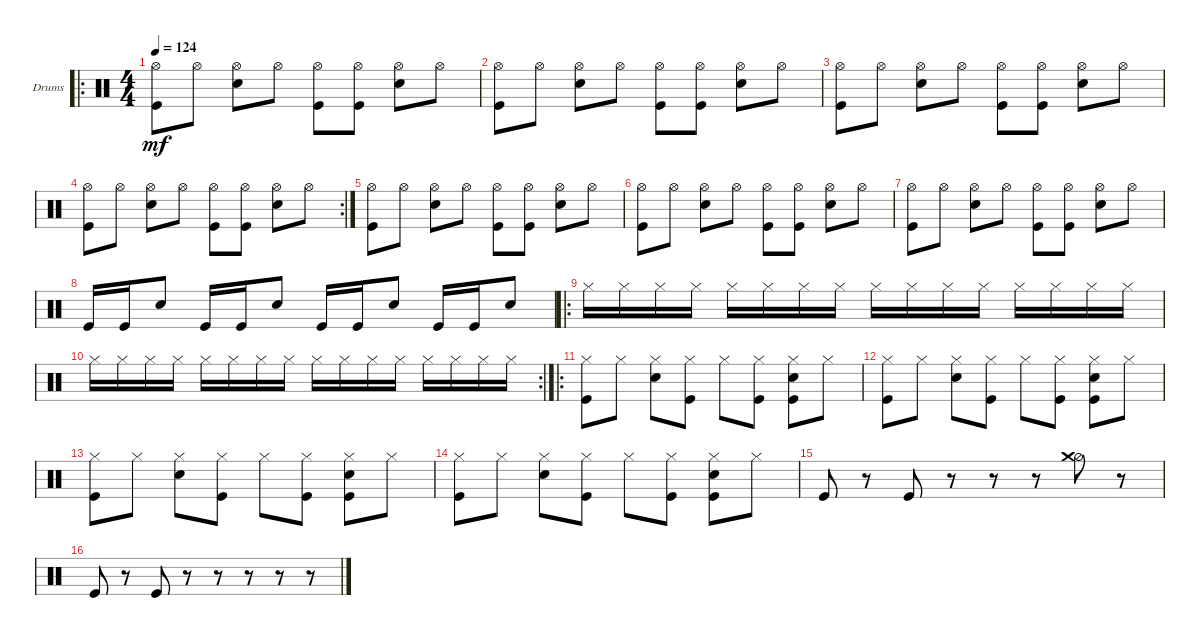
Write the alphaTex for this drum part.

\defaultSystemsLayout 4
\bracketExtendMode groupsimilarinstruments
\firstSystemTrackNameOrientation horizontal
\otherSystemsTrackNameOrientation horizontal
\track ("Drumkit" "Drums") {solo instrument percussion}
\staff {score}
\articulation defaults
\ro
\ts (4 4)
\tempo 124
\clef neutral
\ks c
("Kick (hit)" "Hi-Hat (open)").8{dy mf} "Hi-Hat (open)".8 ("Hi-Hat (open)" "Snare (hit) 2").8 "Hi-Hat (open)".8 ("Hi-Hat (open)" "Kick (hit)").8 ("Hi-Hat (open)" "Kick (hit)").8 ("Hi-Hat (open)" "Snare (hit) 2").8 "Hi-Hat (open)".8 |
("Kick (hit)" "Hi-Hat (open)").8 "Hi-Hat (open)".8 ("Hi-Hat (open)" "Snare (hit) 2").8 "Hi-Hat (open)".8 ("Hi-Hat (open)" "Kick (hit)").8 ("Hi-Hat (open)" "Kick (hit)").8 ("Hi-Hat (open)" "Snare (hit) 2").8 "Hi-Hat (open)".8 |
("Kick (hit)" "Hi-Hat (open)").8 "Hi-Hat (open)".8 ("Hi-Hat (open)" "Snare (hit) 2").8 "Hi-Hat (open)".8 ("Hi-Hat (open)" "Kick (hit)").8 ("Hi-Hat (open)" "Kick (hit)").8 ("Hi-Hat (open)" "Snare (hit) 2").8 "Hi-Hat (open)".8 |
\rc 2
("Kick (hit)" "Hi-Hat (open)").8 "Hi-Hat (open)".8 ("Hi-Hat (open)" "Snare (hit) 2").8 "Hi-Hat (open)".8 ("Hi-Hat (open)" "Kick (hit)").8 ("Hi-Hat (open)" "Kick (hit)").8 ("Hi-Hat (open)" "Snare (hit) 2").8 "Hi-Hat (open)".8 |
("Kick (hit)" "Hi-Hat (open)").8 "Hi-Hat (open)".8 ("Hi-Hat (open)" "Snare (hit) 2").8 "Hi-Hat (open)".8 ("Hi-Hat (open)" "Kick (hit)").8 ("Hi-Hat (open)" "Kick (hit)").8 ("Hi-Hat (open)" "Snare (hit) 2").8 "Hi-Hat (open)".8 |
("Kick (hit)" "Hi-Hat (open)").8 "Hi-Hat (open)".8 ("Hi-Hat (open)" "Snare (hit) 2").8 "Hi-Hat (open)".8 ("Hi-Hat (open)" "Kick (hit)").8 ("Hi-Hat (open)" "Kick (hit)").8 ("Hi-Hat (open)" "Snare (hit) 2").8 "Hi-Hat (open)".8 |
("Kick (hit)" "Hi-Hat (open)").8 "Hi-Hat (open)".8 ("Hi-Hat (open)" "Snare (hit) 2").8 "Hi-Hat (open)".8 ("Hi-Hat (open)" "Kick (hit)").8 ("Hi-Hat (open)" "Kick (hit)").8 ("Hi-Hat (open)" "Snare (hit) 2").8 "Hi-Hat (open)".8 |
"Kick (hit)".16 "Kick (hit)".16 "Snare (hit) 2".8 "Kick (hit)".16 "Kick (hit)".16 "Snare (hit) 2".8 "Kick (hit)".16 "Kick (hit)".16 "Snare (hit) 2".8 "Kick (hit)".16 "Kick (hit)".16 "Snare (hit) 2".8 |
\ro "Hi-Hat (closed)".16 "Hi-Hat (closed)".16 "Hi-Hat (closed)".16 "Hi-Hat (closed)".16 "Hi-Hat (closed)".16 "Hi-Hat (closed)".16 "Hi-Hat (closed)".16 "Hi-Hat (closed)".16 "Hi-Hat (closed)".16 "Hi-Hat (closed)".16 "Hi-Hat (closed)".16 "Hi-Hat (closed)".16 "Hi-Hat (closed)".16 "Hi-Hat (closed)".16 "Hi-Hat (closed)".16 "Hi-Hat (closed)".16
|
\rc 2 "Hi-Hat (closed)".16 "Hi-Hat (closed)".16 "Hi-Hat (closed)".16 "Hi-Hat (closed)".16 "Hi-Hat (closed)".16 "Hi-Hat (closed)".16 "Hi-Hat (closed)".16 "Hi-Hat (closed)".16 "Hi-Hat (closed)".16 "Hi-Hat (closed)".16 "Hi-Hat (closed)".16 "Hi-Hat (closed)".16 "Hi-Hat (closed)".16 "Hi-Hat (closed)".16 "Hi-Hat (closed)".16 "Hi-Hat (closed)".16
|
\ro
("Kick (hit)" "Hi-Hat (closed)").8 "Hi-Hat (closed)".8 ("Hi-Hat (closed)" "Snare (hit) 2").8 ("Kick (hit)" "Hi-Hat (closed)").8 "Hi-Hat (closed)".8 ("Kick (hit)" "Hi-Hat (closed)").8 ("Kick (hit)" "Hi-Hat (closed)" "Snare (hit) 2").8 "Hi-Hat (closed)".8 |
("Kick (hit)" "Hi-Hat (closed)").8 "Hi-Hat (closed)".8 ("Hi-Hat (closed)" "Snare (hit) 2").8 ("Kick (hit)" "Hi-Hat (closed)").8 "Hi-Hat (closed)".8 ("Kick (hit)" "Hi-Hat (closed)").8 ("Kick (hit)" "Hi-Hat (closed)" "Snare (hit) 2").8 "Hi-Hat (closed)".8 |
("Kick (hit)" "Hi-Hat (closed)").8 "Hi-Hat (closed)".8 ("Hi-Hat (closed)" "Snare (hit) 2").8 ("Kick (hit)" "Hi-Hat (closed)").8 "Hi-Hat (closed)".8 ("Kick (hit)" "Hi-Hat (closed)").8 ("Kick (hit)" "Hi-Hat (closed)" "Snare (hit) 2").8 "Hi-Hat (closed)".8 |
("Kick (hit)" "Hi-Hat (closed)").8 "Hi-Hat (closed)".8 ("Hi-Hat (closed)" "Snare (hit) 2").8 ("Kick (hit)" "Hi-Hat (closed)").8 "Hi-Hat (closed)".8 ("Kick (hit)" "Hi-Hat (closed)").8 ("Kick (hit)" "Hi-Hat (closed)" "Snare (hit) 2").8 "Hi-Hat (closed)".8 |
"Kick (hit)".8 r.8 "Kick (hit)".8 r.8 r.8 r.8 ("Hi-Hat (half)" "Crash medium (hit)").8 r.8 |
"Kick (hit)".8 r.8 "Kick (hit)".8 r.8 r.8 r.8 r.8 r.8
